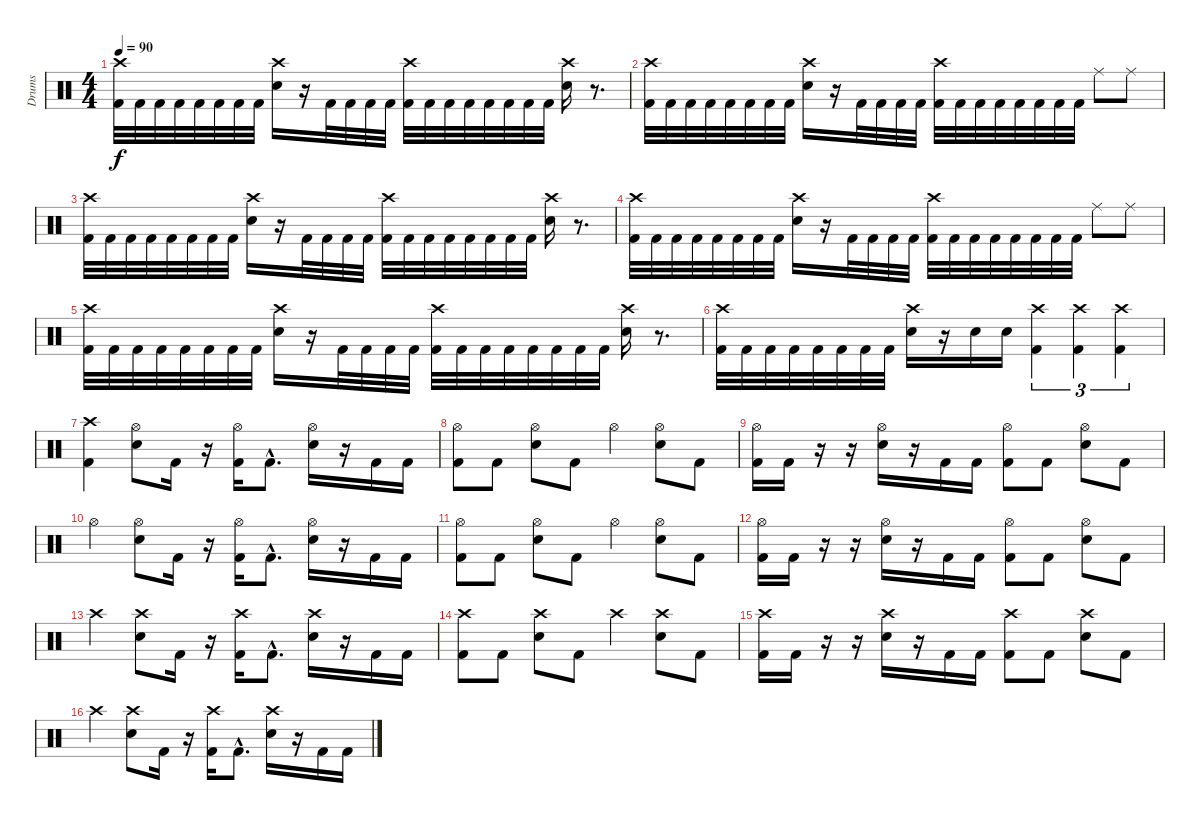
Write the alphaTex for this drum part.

\track ("Drums" "Drums") {instrument percussion}
\staff {score}
\articulation defaults
\ts (4 4)
\tempo 90
\clef neutral
\ks c
("Crash high (hit)" "Kick (hit) 2").32{dy f} "Kick (hit) 2".32 "Kick (hit) 2".32 "Kick (hit) 2".32 "Kick (hit) 2".32 "Kick (hit) 2".32 "Kick (hit) 2".32 "Kick (hit) 2".32 ("Crash high (hit)" "Electric Snare (hit)").16 r.16 "Kick (hit) 2".32 "Kick (hit) 2".32 "Kick (hit) 2".32 "Kick (hit) 2".32 ("Crash high (hit)" "Kick (hit) 2").32 "Kick (hit) 2".32 "Kick (hit) 2".32 "Kick (hit) 2".32 "Kick (hit) 2".32 "Kick (hit) 2".32 "Kick (hit) 2".32 "Kick (hit) 2".32 ("Crash high (hit)" "Electric Snare (hit)").16 r.8{d} |
("Crash high (hit)" "Kick (hit) 2").32 "Kick (hit) 2".32 "Kick (hit) 2".32 "Kick (hit) 2".32 "Kick (hit) 2".32 "Kick (hit) 2".32 "Kick (hit) 2".32 "Kick (hit) 2".32 ("Crash high (hit)" "Electric Snare (hit)").16 r.16 "Kick (hit) 2".32 "Kick (hit) 2".32 "Kick (hit) 2".32 "Kick (hit) 2".32 ("Crash high (hit)" "Kick (hit) 2").32 "Kick (hit) 2".32 "Kick (hit) 2".32 "Kick (hit) 2".32 "Kick (hit) 2".32 "Kick (hit) 2".32 "Kick (hit) 2".32 "Kick (hit) 2".32 "Ride (middle)".8 "Ride (middle)".8 |
("Crash high (hit)" "Kick (hit) 2").32 "Kick (hit) 2".32 "Kick (hit) 2".32 "Kick (hit) 2".32 "Kick (hit) 2".32 "Kick (hit) 2".32 "Kick (hit) 2".32 "Kick (hit) 2".32 ("Crash high (hit)" "Electric Snare (hit)").16 r.16 "Kick (hit) 2".32 "Kick (hit) 2".32 "Kick (hit) 2".32 "Kick (hit) 2".32 ("Crash high (hit)" "Kick (hit) 2").32 "Kick (hit) 2".32 "Kick (hit) 2".32 "Kick (hit) 2".32 "Kick (hit) 2".32 "Kick (hit) 2".32 "Kick (hit) 2".32 "Kick (hit) 2".32 ("Crash high (hit)" "Electric Snare (hit)").16 r.8{d} |
("Crash high (hit)" "Kick (hit) 2").32 "Kick (hit) 2".32 "Kick (hit) 2".32 "Kick (hit) 2".32 "Kick (hit) 2".32 "Kick (hit) 2".32 "Kick (hit) 2".32 "Kick (hit) 2".32 ("Crash high (hit)" "Electric Snare (hit)").16 r.16 "Kick (hit) 2".32 "Kick (hit) 2".32 "Kick (hit) 2".32 "Kick (hit) 2".32 ("Crash high (hit)" "Kick (hit) 2").32 "Kick (hit) 2".32 "Kick (hit) 2".32 "Kick (hit) 2".32 "Kick (hit) 2".32 "Kick (hit) 2".32 "Kick (hit) 2".32 "Kick (hit) 2".32 "Ride (middle)".8 "Ride (middle)".8 |
("Crash high (hit)" "Kick (hit) 2").32 "Kick (hit) 2".32 "Kick (hit) 2".32 "Kick (hit) 2".32 "Kick (hit) 2".32 "Kick (hit) 2".32 "Kick (hit) 2".32 "Kick (hit) 2".32 ("Crash high (hit)" "Electric Snare (hit)").16 r.16 "Kick (hit) 2".32 "Kick (hit) 2".32 "Kick (hit) 2".32 "Kick (hit) 2".32 ("Crash high (hit)" "Kick (hit) 2").32 "Kick (hit) 2".32 "Kick (hit) 2".32 "Kick (hit) 2".32 "Kick (hit) 2".32 "Kick (hit) 2".32 "Kick (hit) 2".32 "Kick (hit) 2".32 ("Crash high (hit)" "Electric Snare (hit)").16 r.8{d} |
("Crash high (hit)" "Kick (hit) 2").32 "Kick (hit) 2".32 "Kick (hit) 2".32 "Kick (hit) 2".32 "Kick (hit) 2".32 "Kick (hit) 2".32 "Kick (hit) 2".32 "Kick (hit) 2".32 ("Crash high (hit)" "Electric Snare (hit)").16 r.16 "Electric Snare (hit)".16 "Electric Snare (hit)".16 ("Crash high (hit)" "Kick (hit) 2").4{tu (3 2)} ("Crash high (hit)" "Kick (hit) 2").4{tu (3 2)} ("Crash high (hit)" "Kick (hit) 2").4{tu (3 2)} |
("Crash high (hit)" "Kick (hit) 2").4 ("Hi-Hat (open)" "Electric Snare (hit)").8 "Kick (hit) 2".16 r.16 ("Hi-Hat (open)" "Kick (hit) 2").16 "Kick (hit) 2"{hac}.8{d} ("Hi-Hat (open)" "Electric Snare (hit)").16 r.16 "Kick (hit) 2".16 "Kick (hit) 2".16 |
("Hi-Hat (open)" "Kick (hit) 2").8 "Kick (hit) 2".8 ("Hi-Hat (open)" "Electric Snare (hit)").8 "Kick (hit) 2".8 "Hi-Hat (open)".4 ("Hi-Hat (open)" "Electric Snare (hit)").8 "Kick (hit) 2".8 |
("Hi-Hat (open)" "Kick (hit) 2").16 "Kick (hit) 2".16 r.16 r.16 ("Hi-Hat (open)" "Electric Snare (hit)").16 r.16 "Kick (hit) 2".16 "Kick (hit) 2".16 ("Hi-Hat (open)" "Kick (hit) 2").8 "Kick (hit) 2".8 ("Hi-Hat (open)" "Electric Snare (hit)").8 "Kick (hit) 2".8 |
"Hi-Hat (open)".4 ("Hi-Hat (open)" "Electric Snare (hit)").8 "Kick (hit) 2".16 r.16 ("Hi-Hat (open)" "Kick (hit) 2").16 "Kick (hit) 2"{hac}.8{d} ("Hi-Hat (open)" "Electric Snare (hit)").16 r.16 "Kick (hit) 2".16 "Kick (hit) 2".16 |
("Hi-Hat (open)" "Kick (hit) 2").8 "Kick (hit) 2".8 ("Hi-Hat (open)" "Electric Snare (hit)").8 "Kick (hit) 2".8 "Hi-Hat (open)".4 ("Hi-Hat (open)" "Electric Snare (hit)").8 "Kick (hit) 2".8 |
("Hi-Hat (open)" "Kick (hit) 2").16 "Kick (hit) 2".16 r.16 r.16 ("Hi-Hat (open)" "Electric Snare (hit)").16 r.16 "Kick (hit) 2".16 "Kick (hit) 2".16 ("Hi-Hat (open)" "Kick (hit) 2").8 "Kick (hit) 2".8 ("Hi-Hat (open)" "Electric Snare (hit)").8 "Kick (hit) 2".8 |
"Crash high (hit)".4 ("Crash high (hit)" "Electric Snare (hit)").8 "Kick (hit) 2".16 r.16 ("Crash high (hit)" "Kick (hit) 2").16 "Kick (hit) 2"{hac}.8{d} ("Crash high (hit)" "Electric Snare (hit)").16 r.16 "Kick (hit) 2".16 "Kick (hit) 2".16 |
("Crash high (hit)" "Kick (hit) 2").8 "Kick (hit) 2".8 ("Crash high (hit)" "Electric Snare (hit)").8 "Kick (hit) 2".8 "Crash high (hit)".4 ("Crash high (hit)" "Electric Snare (hit)").8 "Kick (hit) 2".8 |
("Crash high (hit)" "Kick (hit) 2").16 "Kick (hit) 2".16 r.16 r.16 ("Crash high (hit)" "Electric Snare (hit)").16 r.16 "Kick (hit) 2".16 "Kick (hit) 2".16 ("Crash high (hit)" "Kick (hit) 2").8 "Kick (hit) 2".8 ("Crash high (hit)" "Electric Snare (hit)").8 "Kick (hit) 2".8 |
"Crash high (hit)".4 ("Crash high (hit)" "Electric Snare (hit)").8 "Kick (hit) 2".16 r.16 ("Crash high (hit)" "Kick (hit) 2").16 "Kick (hit) 2"{hac}.8{d} ("Crash high (hit)" "Electric Snare (hit)").16 r.16 "Kick (hit) 2".16 "Kick (hit) 2".16
